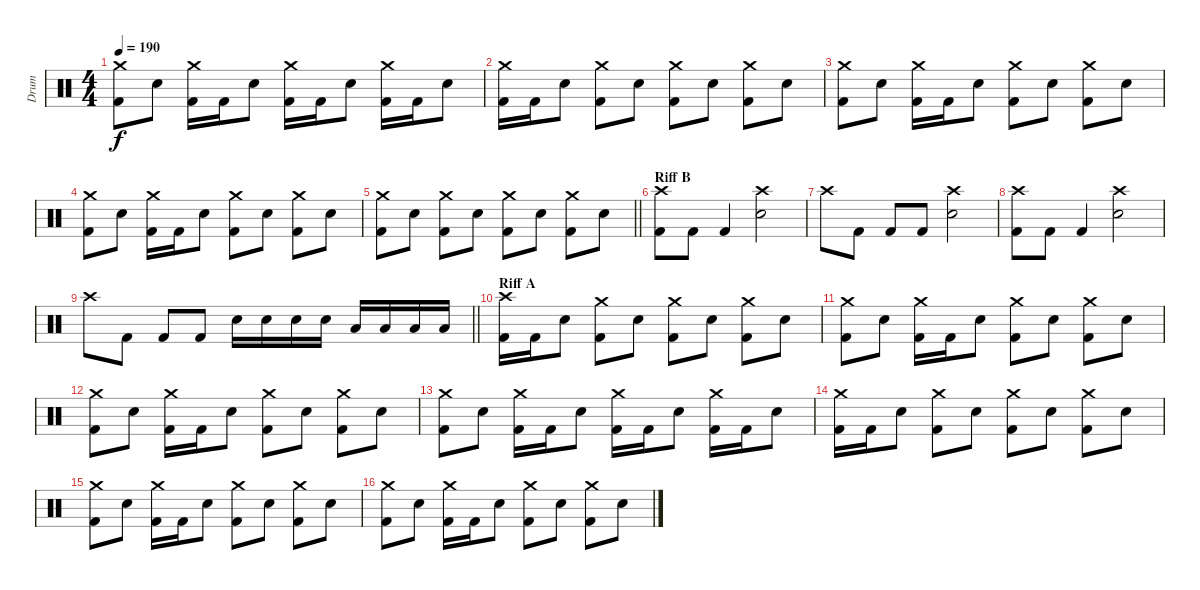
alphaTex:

\track ("Drum" "Drum") {instrument percussion}
\staff {score}
\articulation defaults
\ts (4 4)
\tempo 190
\clef neutral
\ks c
("Crash medium (hit)" "Kick (hit) 2").8{dy f} "Electric Snare (hit)".8 ("Crash medium (hit)" "Kick (hit) 2").16 "Kick (hit) 2".16 "Electric Snare (hit)".8 ("Crash medium (hit)" "Kick (hit) 2").16 "Kick (hit) 2".16 "Electric Snare (hit)".8 ("Crash medium (hit)" "Kick (hit) 2").16 "Kick (hit) 2".16 "Electric Snare (hit)".8 |
("Crash medium (hit)" "Kick (hit) 2").16 "Kick (hit) 2".16 "Electric Snare (hit)".8 ("Crash medium (hit)" "Kick (hit) 2").8 "Electric Snare (hit)".8 ("Crash medium (hit)" "Kick (hit) 2").8 "Electric Snare (hit)".8 ("Crash medium (hit)" "Kick (hit) 2").8 "Electric Snare (hit)".8 |
("Crash medium (hit)" "Kick (hit) 2").8 "Electric Snare (hit)".8 ("Crash medium (hit)" "Kick (hit) 2").16 "Kick (hit) 2".16 "Electric Snare (hit)".8 ("Crash medium (hit)" "Kick (hit) 2").8 "Electric Snare (hit)".8 ("Crash medium (hit)" "Kick (hit) 2").8 "Electric Snare (hit)".8 |
("Crash medium (hit)" "Kick (hit) 2").8 "Electric Snare (hit)".8 ("Crash medium (hit)" "Kick (hit) 2").16 "Kick (hit) 2".16 "Electric Snare (hit)".8 ("Crash medium (hit)" "Kick (hit) 2").8 "Electric Snare (hit)".8 ("Crash medium (hit)" "Kick (hit) 2").8 "Electric Snare (hit)".8 |
\barLineRight lightlight
("Crash medium (hit)" "Kick (hit) 2").8 "Electric Snare (hit)".8 ("Crash medium (hit)" "Kick (hit) 2").8 "Electric Snare (hit)".8 ("Crash medium (hit)" "Kick (hit) 2").8 "Electric Snare (hit)".8 ("Crash medium (hit)" "Kick (hit) 2").8 "Electric Snare (hit)".8 |
\section ("" "Riff B")
("Crash high (hit)" "Kick (hit) 2").8 "Kick (hit) 2".8 "Kick (hit) 2".4 ("Crash high (hit)" "Electric Snare (hit)").2 |
"Crash high (hit)".8 "Kick (hit) 2".8 "Kick (hit) 2".8 "Kick (hit) 2".8 ("Crash high (hit)" "Electric Snare (hit)").2 |
("Crash high (hit)" "Kick (hit) 2").8 "Kick (hit) 2".8 "Kick (hit) 2".4 ("Crash high (hit)" "Electric Snare (hit)").2 |
\barLineRight lightlight "Crash high (hit)".8 "Kick (hit) 2".8 "Kick (hit) 2".8 "Kick (hit) 2".8 "Electric Snare (hit)".16 "Electric Snare (hit)".16 "Electric Snare (hit)".16 "Electric Snare (hit)".16 "Low Tom (hit)".16 "Low Tom (hit)".16 "Low Tom (hit)".16 "Low Tom (hit)".16
|
\section ("" "Riff A")
("Crash high (hit)" "Kick (hit) 2").16 "Kick (hit) 2".16 "Electric Snare (hit)".8 ("Crash medium (hit)" "Kick (hit) 2").8 "Electric Snare (hit)".8 ("Crash medium (hit)" "Kick (hit) 2").8 "Electric Snare (hit)".8 ("Crash medium (hit)" "Kick (hit) 2").8 "Electric Snare (hit)".8 |
("Crash medium (hit)" "Kick (hit) 2").8 "Electric Snare (hit)".8 ("Crash medium (hit)" "Kick (hit) 2").16 "Kick (hit) 2".16 "Electric Snare (hit)".8 ("Crash medium (hit)" "Kick (hit) 2").8 "Electric Snare (hit)".8 ("Crash medium (hit)" "Kick (hit) 2").8 "Electric Snare (hit)".8 |
("Crash medium (hit)" "Kick (hit) 2").8 "Electric Snare (hit)".8 ("Crash medium (hit)" "Kick (hit) 2").16 "Kick (hit) 2".16 "Electric Snare (hit)".8 ("Crash medium (hit)" "Kick (hit) 2").8 "Electric Snare (hit)".8 ("Crash medium (hit)" "Kick (hit) 2").8 "Electric Snare (hit)".8 |
("Crash medium (hit)" "Kick (hit) 2").8 "Electric Snare (hit)".8 ("Crash medium (hit)" "Kick (hit) 2").16 "Kick (hit) 2".16 "Electric Snare (hit)".8 ("Crash medium (hit)" "Kick (hit) 2").16 "Kick (hit) 2".16 "Electric Snare (hit)".8 ("Crash medium (hit)" "Kick (hit) 2").16 "Kick (hit) 2".16 "Electric Snare (hit)".8 |
("Crash medium (hit)" "Kick (hit) 2").16 "Kick (hit) 2".16 "Electric Snare (hit)".8 ("Crash medium (hit)" "Kick (hit) 2").8 "Electric Snare (hit)".8 ("Crash medium (hit)" "Kick (hit) 2").8 "Electric Snare (hit)".8 ("Crash medium (hit)" "Kick (hit) 2").8 "Electric Snare (hit)".8 |
("Crash medium (hit)" "Kick (hit) 2").8 "Electric Snare (hit)".8 ("Crash medium (hit)" "Kick (hit) 2").16 "Kick (hit) 2".16 "Electric Snare (hit)".8 ("Crash medium (hit)" "Kick (hit) 2").8 "Electric Snare (hit)".8 ("Crash medium (hit)" "Kick (hit) 2").8 "Electric Snare (hit)".8 |
("Crash medium (hit)" "Kick (hit) 2").8 "Electric Snare (hit)".8 ("Crash medium (hit)" "Kick (hit) 2").16 "Kick (hit) 2".16 "Electric Snare (hit)".8 ("Crash medium (hit)" "Kick (hit) 2").8 "Electric Snare (hit)".8 ("Crash medium (hit)" "Kick (hit) 2").8 "Electric Snare (hit)".8
